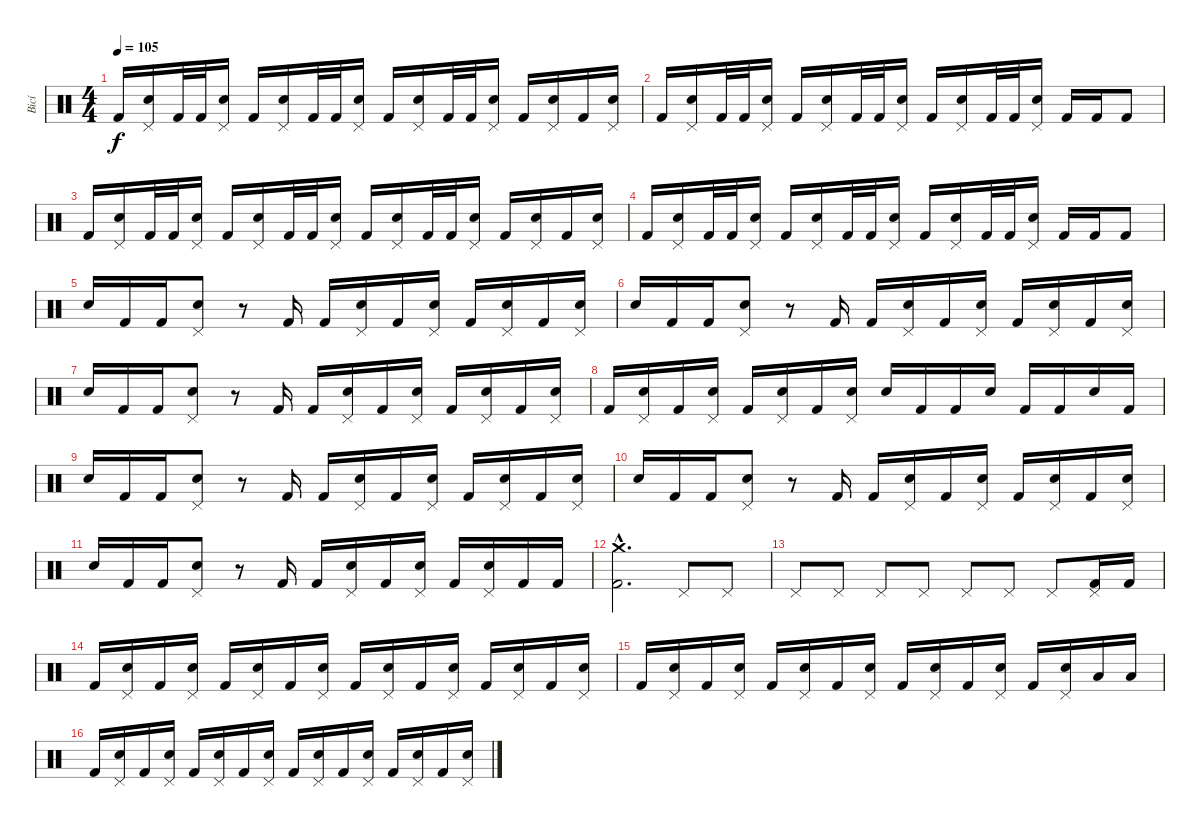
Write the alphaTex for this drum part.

\track ("Bicí" "Bicí") {instrument percussion}
\staff {score}
\articulation defaults
\ts (4 4)
\tempo 105
\clef neutral
\ks c "Kick (hit) 2".16{dy f}
("Pedal Hi-Hat (hit)" "Snare (hit) 2").16 "Kick (hit) 2".32 "Kick (hit) 2".32 ("Pedal Hi-Hat (hit)" "Snare (hit) 2").16 "Kick (hit) 2".16 ("Pedal Hi-Hat (hit)" "Snare (hit) 2").16 "Kick (hit) 2".32 "Kick (hit) 2".32 ("Pedal Hi-Hat (hit)" "Snare (hit) 2").16 "Kick (hit) 2".16 ("Pedal Hi-Hat (hit)" "Snare (hit) 2").16 "Kick (hit) 2".32 "Kick (hit) 2".32 ("Pedal Hi-Hat (hit)" "Snare (hit) 2").16 "Kick (hit) 2".16 ("Pedal Hi-Hat (hit)" "Snare (hit) 2").16 "Kick (hit) 2".16 ("Pedal Hi-Hat (hit)" "Snare (hit) 2").16 |
"Kick (hit) 2".16 ("Pedal Hi-Hat (hit)" "Snare (hit) 2").16 "Kick (hit) 2".32 "Kick (hit) 2".32 ("Pedal Hi-Hat (hit)" "Snare (hit) 2").16 "Kick (hit) 2".16 ("Pedal Hi-Hat (hit)" "Snare (hit) 2").16 "Kick (hit) 2".32 "Kick (hit) 2".32 ("Pedal Hi-Hat (hit)" "Snare (hit) 2").16 "Kick (hit) 2".16 ("Pedal Hi-Hat (hit)" "Snare (hit) 2").16 "Kick (hit) 2".32 "Kick (hit) 2".32 ("Pedal Hi-Hat (hit)" "Snare (hit) 2").16 "Kick (hit) 2".16 "Kick (hit) 2".16 "Kick (hit) 2".8 |
"Kick (hit) 2".16 ("Pedal Hi-Hat (hit)" "Snare (hit) 2").16 "Kick (hit) 2".32 "Kick (hit) 2".32 ("Pedal Hi-Hat (hit)" "Snare (hit) 2").16 "Kick (hit) 2".16 ("Pedal Hi-Hat (hit)" "Snare (hit) 2").16 "Kick (hit) 2".32 "Kick (hit) 2".32 ("Pedal Hi-Hat (hit)" "Snare (hit) 2").16 "Kick (hit) 2".16 ("Pedal Hi-Hat (hit)" "Snare (hit) 2").16 "Kick (hit) 2".32 "Kick (hit) 2".32 ("Pedal Hi-Hat (hit)" "Snare (hit) 2").16 "Kick (hit) 2".16 ("Pedal Hi-Hat (hit)" "Snare (hit) 2").16 "Kick (hit) 2".16 ("Pedal Hi-Hat (hit)" "Snare (hit) 2").16 |
"Kick (hit) 2".16 ("Pedal Hi-Hat (hit)" "Snare (hit) 2").16 "Kick (hit) 2".32 "Kick (hit) 2".32 ("Pedal Hi-Hat (hit)" "Snare (hit) 2").16 "Kick (hit) 2".16 ("Pedal Hi-Hat (hit)" "Snare (hit) 2").16 "Kick (hit) 2".32 "Kick (hit) 2".32 ("Pedal Hi-Hat (hit)" "Snare (hit) 2").16 "Kick (hit) 2".16 ("Pedal Hi-Hat (hit)" "Snare (hit) 2").16 "Kick (hit) 2".32 "Kick (hit) 2".32 ("Pedal Hi-Hat (hit)" "Snare (hit) 2").16 "Kick (hit) 2".16 "Kick (hit) 2".16 "Kick (hit) 2".8 |
"Snare (hit) 2".16 "Kick (hit) 2".16 "Kick (hit) 2".16 ("Pedal Hi-Hat (hit)" "Snare (hit) 2").8 r.8 "Kick (hit) 2".16 "Kick (hit) 2".16 ("Pedal Hi-Hat (hit)" "Snare (hit) 2").16 "Kick (hit) 2".16 ("Pedal Hi-Hat (hit)" "Snare (hit) 2").16 "Kick (hit) 2".16 ("Pedal Hi-Hat (hit)" "Snare (hit) 2").16 "Kick (hit) 2".16 ("Pedal Hi-Hat (hit)" "Snare (hit) 2").16 |
"Snare (hit) 2".16 "Kick (hit) 2".16 "Kick (hit) 2".16 ("Pedal Hi-Hat (hit)" "Snare (hit) 2").8 r.8 "Kick (hit) 2".16 "Kick (hit) 2".16 ("Pedal Hi-Hat (hit)" "Snare (hit) 2").16 "Kick (hit) 2".16 ("Pedal Hi-Hat (hit)" "Snare (hit) 2").16 "Kick (hit) 2".16 ("Pedal Hi-Hat (hit)" "Snare (hit) 2").16 "Kick (hit) 2".16 ("Pedal Hi-Hat (hit)" "Snare (hit) 2").16 |
"Snare (hit) 2".16 "Kick (hit) 2".16 "Kick (hit) 2".16 ("Pedal Hi-Hat (hit)" "Snare (hit) 2").8 r.8 "Kick (hit) 2".16 "Kick (hit) 2".16 ("Pedal Hi-Hat (hit)" "Snare (hit) 2").16 "Kick (hit) 2".16 ("Pedal Hi-Hat (hit)" "Snare (hit) 2").16 "Kick (hit) 2".16 ("Pedal Hi-Hat (hit)" "Snare (hit) 2").16 "Kick (hit) 2".16 ("Pedal Hi-Hat (hit)" "Snare (hit) 2").16 |
"Kick (hit) 2".16 ("Pedal Hi-Hat (hit)" "Snare (hit) 2").16 "Kick (hit) 2".16 ("Pedal Hi-Hat (hit)" "Snare (hit) 2").16 "Kick (hit) 2".16 ("Pedal Hi-Hat (hit)" "Snare (hit) 2").16 "Kick (hit) 2".16 ("Pedal Hi-Hat (hit)" "Snare (hit) 2").16 "Snare (hit) 2".16 "Kick (hit) 2".16 "Kick (hit) 2".16 "Snare (hit) 2".16 "Kick (hit) 2".16 "Kick (hit) 2".16 "Snare (hit) 2".16 "Kick (hit) 2".16 |
"Snare (hit) 2".16 "Kick (hit) 2".16 "Kick (hit) 2".16 ("Pedal Hi-Hat (hit)" "Snare (hit) 2").8 r.8 "Kick (hit) 2".16 "Kick (hit) 2".16 ("Pedal Hi-Hat (hit)" "Snare (hit) 2").16 "Kick (hit) 2".16 ("Pedal Hi-Hat (hit)" "Snare (hit) 2").16 "Kick (hit) 2".16 ("Pedal Hi-Hat (hit)" "Snare (hit) 2").16 "Kick (hit) 2".16 ("Pedal Hi-Hat (hit)" "Snare (hit) 2").16 |
"Snare (hit) 2".16 "Kick (hit) 2".16 "Kick (hit) 2".16 ("Pedal Hi-Hat (hit)" "Snare (hit) 2").8 r.8 "Kick (hit) 2".16 "Kick (hit) 2".16 ("Pedal Hi-Hat (hit)" "Snare (hit) 2").16 "Kick (hit) 2".16 ("Pedal Hi-Hat (hit)" "Snare (hit) 2").16 "Kick (hit) 2".16 ("Pedal Hi-Hat (hit)" "Snare (hit) 2").16 "Kick (hit) 2".16 ("Pedal Hi-Hat (hit)" "Snare (hit) 2").16 |
"Snare (hit) 2".16 "Kick (hit) 2".16 "Kick (hit) 2".16 ("Pedal Hi-Hat (hit)" "Snare (hit) 2").8 r.8 "Kick (hit) 2".16 "Kick (hit) 2".16 ("Pedal Hi-Hat (hit)" "Snare (hit) 2").16 "Kick (hit) 2".16 ("Pedal Hi-Hat (hit)" "Snare (hit) 2").16 "Kick (hit) 2".16 ("Pedal Hi-Hat (hit)" "Snare (hit) 2").16 "Kick (hit) 2".16 "Kick (hit) 2".16 |
("Crash medium (hit)"{hac} "Kick (hit) 2"{hac}).2{d} "Pedal Hi-Hat (hit)".8 "Pedal Hi-Hat (hit)".8 |
"Pedal Hi-Hat (hit)".8 "Pedal Hi-Hat (hit)".8 "Pedal Hi-Hat (hit)".8 "Pedal Hi-Hat (hit)".8 "Pedal Hi-Hat (hit)".8 "Pedal Hi-Hat (hit)".8 "Pedal Hi-Hat (hit)".8 ("Pedal Hi-Hat (hit)" "Kick (hit) 2").16 "Kick (hit) 2".16 |
"Kick (hit) 2".16 ("Pedal Hi-Hat (hit)" "Snare (hit) 2").16 "Kick (hit) 2".16 ("Pedal Hi-Hat (hit)" "Snare (hit) 2").16 "Kick (hit) 2".16 ("Pedal Hi-Hat (hit)" "Snare (hit) 2").16 "Kick (hit) 2".16 ("Pedal Hi-Hat (hit)" "Snare (hit) 2").16 "Kick (hit) 2".16 ("Pedal Hi-Hat (hit)" "Snare (hit) 2").16 "Kick (hit) 2".16 ("Pedal Hi-Hat (hit)" "Snare (hit) 2").16 "Kick (hit) 2".16 ("Pedal Hi-Hat (hit)" "Snare (hit) 2").16 "Kick (hit) 2".16 ("Pedal Hi-Hat (hit)" "Snare (hit) 2").16 |
"Kick (hit) 2".16 ("Pedal Hi-Hat (hit)" "Snare (hit) 2").16 "Kick (hit) 2".16 ("Pedal Hi-Hat (hit)" "Snare (hit) 2").16 "Kick (hit) 2".16 ("Pedal Hi-Hat (hit)" "Snare (hit) 2").16 "Kick (hit) 2".16 ("Pedal Hi-Hat (hit)" "Snare (hit) 2").16 "Kick (hit) 2".16 ("Pedal Hi-Hat (hit)" "Snare (hit) 2").16 "Kick (hit) 2".16 ("Pedal Hi-Hat (hit)" "Snare (hit) 2").16 "Kick (hit) 2".16 ("Pedal Hi-Hat (hit)" "Snare (hit) 2").16 "Low Tom (hit)".16 "Low Tom (hit)".16 |
"Kick (hit) 2".16 ("Pedal Hi-Hat (hit)" "Snare (hit) 2").16 "Kick (hit) 2".16 ("Pedal Hi-Hat (hit)" "Snare (hit) 2").16 "Kick (hit) 2".16 ("Pedal Hi-Hat (hit)" "Snare (hit) 2").16 "Kick (hit) 2".16 ("Pedal Hi-Hat (hit)" "Snare (hit) 2").16 "Kick (hit) 2".16 ("Pedal Hi-Hat (hit)" "Snare (hit) 2").16 "Kick (hit) 2".16 ("Pedal Hi-Hat (hit)" "Snare (hit) 2").16 "Kick (hit) 2".16 ("Pedal Hi-Hat (hit)" "Snare (hit) 2").16 "Kick (hit) 2".16 ("Pedal Hi-Hat (hit)" "Snare (hit) 2").16
